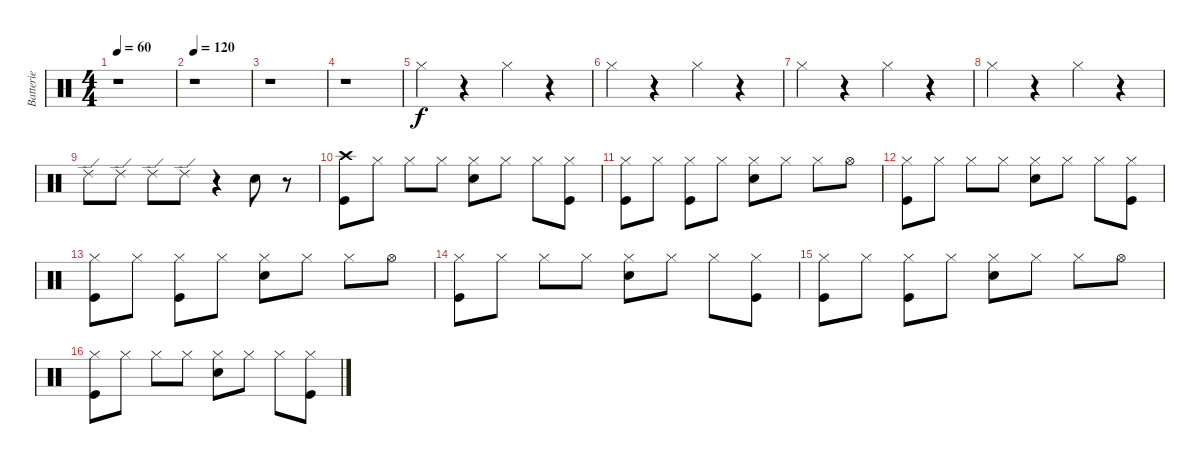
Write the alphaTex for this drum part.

\track ("Batterie" "Batterie") {instrument percussion}
\staff {score}
\articulation defaults
\ts (4 4)
\tempo 60
\clef neutral
\ks c
r.1{dy f} |
\tempo 120
r.1 |
r.1 |
r.1 |
"Hi-Hat (closed)".4 r.4 "Hi-Hat (closed)".4 r.4 |
"Hi-Hat (closed)".4 r.4 "Hi-Hat (closed)".4 r.4 |
"Hi-Hat (closed)".4 r.4 "Hi-Hat (closed)".4 r.4 |
"Hi-Hat (closed)".4 r.4 "Hi-Hat (closed)".4 r.4 |
"Ride (edge) 2".8 "Ride (edge) 2".8 "Ride (edge) 2".8 "Ride (edge) 2".8 r.4 "Snare (hit) 2".8 r.8 |
("Crash high (hit)" "Kick (hit)").8 "Hi-Hat (closed)".8 "Hi-Hat (closed)".8 "Hi-Hat (closed)".8 ("Snare (hit) 2" "Hi-Hat (closed)").8 "Hi-Hat (closed)".8 "Hi-Hat (closed)".8 ("Kick (hit)" "Hi-Hat (closed)").8 |
("Hi-Hat (closed)" "Kick (hit)").8 "Hi-Hat (closed)".8 ("Kick (hit)" "Hi-Hat (closed)").8 "Hi-Hat (closed)".8 ("Snare (hit) 2" "Hi-Hat (closed)").8 "Hi-Hat (closed)".8 "Hi-Hat (closed)".8 "Hi-Hat (open)".8 |
("Kick (hit)" "Hi-Hat (closed)").8 "Hi-Hat (closed)".8 "Hi-Hat (closed)".8 "Hi-Hat (closed)".8 ("Snare (hit) 2" "Hi-Hat (closed)").8 "Hi-Hat (closed)".8 "Hi-Hat (closed)".8 ("Kick (hit)" "Hi-Hat (closed)").8 |
("Kick (hit)" "Hi-Hat (closed)").8 "Hi-Hat (closed)".8 ("Kick (hit)" "Hi-Hat (closed)").8 "Hi-Hat (closed)".8 ("Snare (hit) 2" "Hi-Hat (closed)").8 "Hi-Hat (closed)".8 "Hi-Hat (closed)".8 "Hi-Hat (open)".8 |
("Kick (hit)" "Hi-Hat (closed)").8 "Hi-Hat (closed)".8 "Hi-Hat (closed)".8 "Hi-Hat (closed)".8 ("Snare (hit) 2" "Hi-Hat (closed)").8 "Hi-Hat (closed)".8 "Hi-Hat (closed)".8 ("Kick (hit)" "Hi-Hat (closed)").8 |
("Kick (hit)" "Hi-Hat (closed)").8 "Hi-Hat (closed)".8 ("Kick (hit)" "Hi-Hat (closed)").8 "Hi-Hat (closed)".8 ("Snare (hit) 2" "Hi-Hat (closed)").8 "Hi-Hat (closed)".8 "Hi-Hat (closed)".8 "Hi-Hat (open)".8 |
("Hi-Hat (closed)" "Kick (hit)").8 "Hi-Hat (closed)".8 "Hi-Hat (closed)".8 "Hi-Hat (closed)".8 ("Snare (hit) 2" "Hi-Hat (closed)").8 "Hi-Hat (closed)".8 "Hi-Hat (closed)".8 ("Kick (hit)" "Hi-Hat (closed)").8
